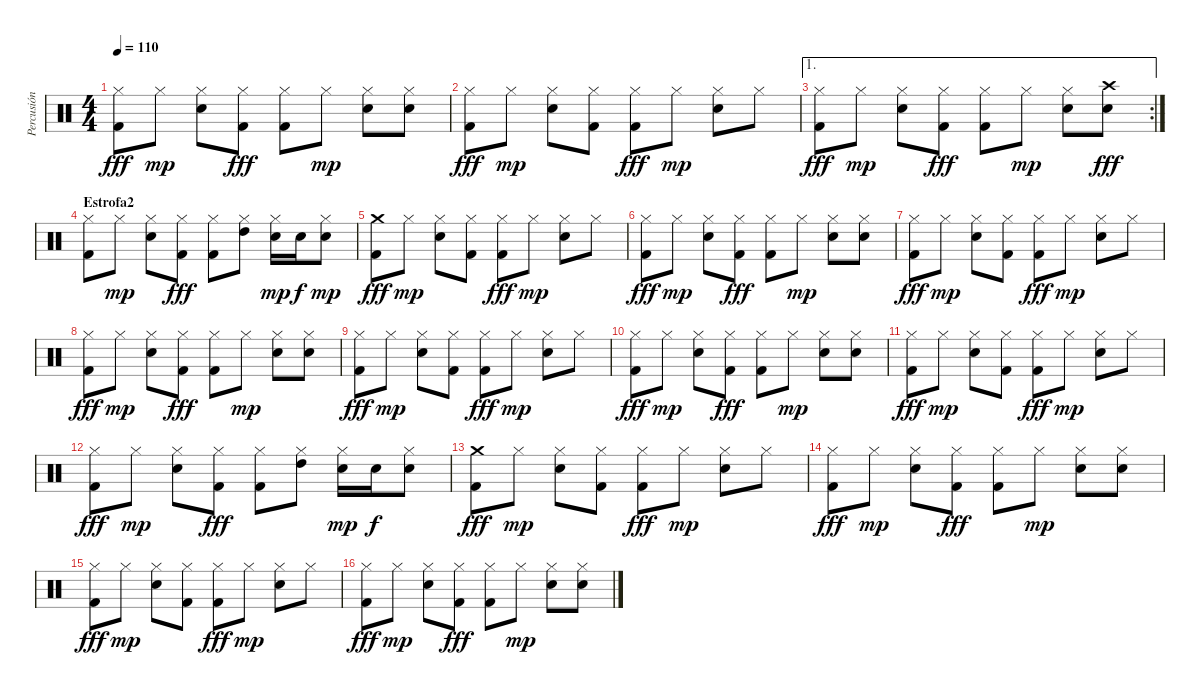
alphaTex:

\track ("Percusión" "Percusión") {instrument percussion}
\staff {score}
\articulation defaults
\ts (4 4)
\tempo 110
\clef neutral
\ks c
("Hi-Hat (closed)" "Kick (hit) 2").8{dy fff} "Hi-Hat (closed)".8{dy mp} ("Hi-Hat (closed)" "Snare (hit) 2").8 ("Hi-Hat (closed)" "Kick (hit) 2").8{dy fff} ("Hi-Hat (closed)" "Kick (hit) 2").8 "Hi-Hat (closed)".8{dy mp} ("Hi-Hat (closed)" "Snare (hit) 2").8 ("Hi-Hat (closed)" "Snare (hit) 2").8 |
("Hi-Hat (closed)" "Kick (hit) 2").8{dy fff} "Hi-Hat (closed)".8{dy mp} ("Hi-Hat (closed)" "Snare (hit) 2").8 ("Hi-Hat (closed)" "Kick (hit) 2").8 ("Hi-Hat (closed)" "Kick (hit) 2").8{dy fff} "Hi-Hat (closed)".8{dy mp} ("Hi-Hat (closed)" "Snare (hit) 2").8 "Hi-Hat (closed)".8 |
\ae 1
\rc 2
("Hi-Hat (closed)" "Kick (hit) 2").8{dy fff} "Hi-Hat (closed)".8{dy mp} ("Hi-Hat (closed)" "Snare (hit) 2").8 ("Hi-Hat (closed)" "Kick (hit) 2").8{dy fff} ("Hi-Hat (closed)" "Kick (hit) 2").8 "Hi-Hat (closed)".8{dy mp} ("Hi-Hat (closed)" "Snare (hit) 2").8 ("Crash high (hit)" "Snare (hit) 2").8{dy fff} |
\section ("" "Estrofa2")
("Hi-Hat (closed)" "Kick (hit) 2").8 "Hi-Hat (closed)".8{dy mp} ("Hi-Hat (closed)" "Snare (hit) 2").8 ("Hi-Hat (closed)" "Kick (hit) 2").8{dy fff} ("Hi-Hat (closed)" "Kick (hit) 2").8 ("Hi-Hat (closed)" "High Tom (hit)").8 ("Hi-Hat (closed)" "Snare (hit) 2").16{dy mp} "Snare (hit) 2".16{dy f} ("Hi-Hat (closed)" "Snare (hit) 2").8{dy mp} |
("Crash medium (hit)" "Kick (hit) 2").8{dy fff} "Hi-Hat (closed)".8{dy mp} ("Hi-Hat (closed)" "Snare (hit) 2").8 ("Hi-Hat (closed)" "Kick (hit) 2").8 ("Hi-Hat (closed)" "Kick (hit) 2").8{dy fff} "Hi-Hat (closed)".8{dy mp} ("Hi-Hat (closed)" "Snare (hit) 2").8 "Hi-Hat (closed)".8 |
("Hi-Hat (closed)" "Kick (hit) 2").8{dy fff} "Hi-Hat (closed)".8{dy mp} ("Hi-Hat (closed)" "Snare (hit) 2").8 ("Hi-Hat (closed)" "Kick (hit) 2").8{dy fff} ("Hi-Hat (closed)" "Kick (hit) 2").8 "Hi-Hat (closed)".8{dy mp} ("Hi-Hat (closed)" "Snare (hit) 2").8 ("Hi-Hat (closed)" "Snare (hit) 2").8 |
("Hi-Hat (closed)" "Kick (hit) 2").8{dy fff} "Hi-Hat (closed)".8{dy mp} ("Hi-Hat (closed)" "Snare (hit) 2").8 ("Hi-Hat (closed)" "Kick (hit) 2").8 ("Hi-Hat (closed)" "Kick (hit) 2").8{dy fff} "Hi-Hat (closed)".8{dy mp} ("Hi-Hat (closed)" "Snare (hit) 2").8 "Hi-Hat (closed)".8 |
("Hi-Hat (closed)" "Kick (hit) 2").8{dy fff} "Hi-Hat (closed)".8{dy mp} ("Hi-Hat (closed)" "Snare (hit) 2").8 ("Hi-Hat (closed)" "Kick (hit) 2").8{dy fff} ("Hi-Hat (closed)" "Kick (hit) 2").8 "Hi-Hat (closed)".8{dy mp} ("Hi-Hat (closed)" "Snare (hit) 2").8 ("Hi-Hat (closed)" "Snare (hit) 2").8 |
("Hi-Hat (closed)" "Kick (hit) 2").8{dy fff} "Hi-Hat (closed)".8{dy mp} ("Hi-Hat (closed)" "Snare (hit) 2").8 ("Hi-Hat (closed)" "Kick (hit) 2").8 ("Hi-Hat (closed)" "Kick (hit) 2").8{dy fff} "Hi-Hat (closed)".8{dy mp} ("Hi-Hat (closed)" "Snare (hit) 2").8 "Hi-Hat (closed)".8 |
("Hi-Hat (closed)" "Kick (hit) 2").8{dy fff} "Hi-Hat (closed)".8{dy mp} ("Hi-Hat (closed)" "Snare (hit) 2").8 ("Hi-Hat (closed)" "Kick (hit) 2").8{dy fff} ("Hi-Hat (closed)" "Kick (hit) 2").8 "Hi-Hat (closed)".8{dy mp} ("Hi-Hat (closed)" "Snare (hit) 2").8 ("Hi-Hat (closed)" "Snare (hit) 2").8 |
("Hi-Hat (closed)" "Kick (hit) 2").8{dy fff} "Hi-Hat (closed)".8{dy mp} ("Hi-Hat (closed)" "Snare (hit) 2").8 ("Hi-Hat (closed)" "Kick (hit) 2").8 ("Hi-Hat (closed)" "Kick (hit) 2").8{dy fff} "Hi-Hat (closed)".8{dy mp} ("Hi-Hat (closed)" "Snare (hit) 2").8 "Hi-Hat (closed)".8 |
("Hi-Hat (closed)" "Kick (hit) 2").8{dy fff} "Hi-Hat (closed)".8{dy mp} ("Hi-Hat (closed)" "Snare (hit) 2").8 ("Hi-Hat (closed)" "Kick (hit) 2").8{dy fff} ("Hi-Hat (closed)" "Kick (hit) 2").8 ("Hi-Hat (closed)" "High Tom (hit)").8 ("Hi-Hat (closed)" "Snare (hit) 2").16{dy mp} "Snare (hit) 2".16{dy f} ("Hi-Hat (closed)" "Snare (hit) 2").8 |
("Crash medium (hit)" "Kick (hit) 2").8{dy fff} "Hi-Hat (closed)".8{dy mp} ("Hi-Hat (closed)" "Snare (hit) 2").8 ("Hi-Hat (closed)" "Kick (hit) 2").8 ("Hi-Hat (closed)" "Kick (hit) 2").8{dy fff} "Hi-Hat (closed)".8{dy mp} ("Hi-Hat (closed)" "Snare (hit) 2").8 "Hi-Hat (closed)".8 |
("Hi-Hat (closed)" "Kick (hit) 2").8{dy fff} "Hi-Hat (closed)".8{dy mp} ("Hi-Hat (closed)" "Snare (hit) 2").8 ("Hi-Hat (closed)" "Kick (hit) 2").8{dy fff} ("Hi-Hat (closed)" "Kick (hit) 2").8 "Hi-Hat (closed)".8{dy mp} ("Hi-Hat (closed)" "Snare (hit) 2").8 ("Hi-Hat (closed)" "Snare (hit) 2").8 |
("Hi-Hat (closed)" "Kick (hit) 2").8{dy fff} "Hi-Hat (closed)".8{dy mp} ("Hi-Hat (closed)" "Snare (hit) 2").8 ("Hi-Hat (closed)" "Kick (hit) 2").8 ("Hi-Hat (closed)" "Kick (hit) 2").8{dy fff} "Hi-Hat (closed)".8{dy mp} ("Hi-Hat (closed)" "Snare (hit) 2").8 "Hi-Hat (closed)".8 |
("Hi-Hat (closed)" "Kick (hit) 2").8{dy fff} "Hi-Hat (closed)".8{dy mp} ("Hi-Hat (closed)" "Snare (hit) 2").8 ("Hi-Hat (closed)" "Kick (hit) 2").8{dy fff} ("Hi-Hat (closed)" "Kick (hit) 2").8 "Hi-Hat (closed)".8{dy mp} ("Hi-Hat (closed)" "Snare (hit) 2").8 ("Hi-Hat (closed)" "Snare (hit) 2").8
